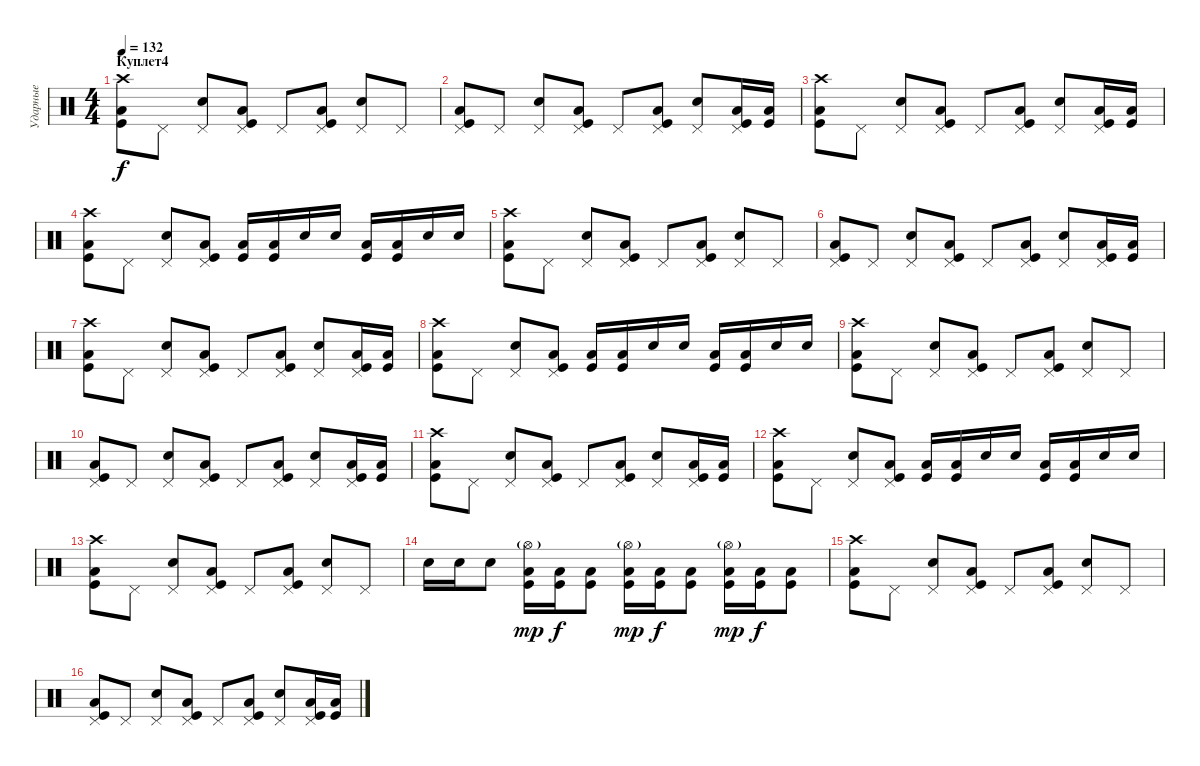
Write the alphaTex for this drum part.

\track ("Ударные" "Ударные") {instrument percussion}
\staff {score}
\articulation defaults
\ts (4 4)
\section ("" "Куплет4")
\tempo 132
\clef neutral
\ks c
("Crash high (hit)" "Low Tom (hit)" "Kick (hit)").8{dy f} "Pedal Hi-Hat (hit)".8 ("Pedal Hi-Hat (hit)" "Snare (hit) 2").8 ("Pedal Hi-Hat (hit)" "Low Tom (hit)" "Kick (hit)").8 "Pedal Hi-Hat (hit)".8 ("Pedal Hi-Hat (hit)" "Low Tom (hit)" "Kick (hit)").8 ("Pedal Hi-Hat (hit)" "Snare (hit) 2").8 "Pedal Hi-Hat (hit)".8 |
("Pedal Hi-Hat (hit)" "Low Tom (hit)" "Kick (hit)").8 "Pedal Hi-Hat (hit)".8 ("Pedal Hi-Hat (hit)" "Snare (hit) 2").8 ("Pedal Hi-Hat (hit)" "Low Tom (hit)" "Kick (hit)").8 "Pedal Hi-Hat (hit)".8 ("Pedal Hi-Hat (hit)" "Low Tom (hit)" "Kick (hit)").8 ("Pedal Hi-Hat (hit)" "Snare (hit) 2").8 ("Pedal Hi-Hat (hit)" "Low Tom (hit)" "Kick (hit)").16 ("Low Tom (hit)" "Kick (hit)").16 |
("Crash high (hit)" "Low Tom (hit)" "Kick (hit)").8 "Pedal Hi-Hat (hit)".8 ("Pedal Hi-Hat (hit)" "Snare (hit) 2").8 ("Pedal Hi-Hat (hit)" "Low Tom (hit)" "Kick (hit)").8 "Pedal Hi-Hat (hit)".8 ("Pedal Hi-Hat (hit)" "Low Tom (hit)" "Kick (hit)").8 ("Pedal Hi-Hat (hit)" "Snare (hit) 2").8 ("Pedal Hi-Hat (hit)" "Low Tom (hit)" "Kick (hit)").16 ("Low Tom (hit)" "Kick (hit)").16 |
("Crash high (hit)" "Low Tom (hit)" "Kick (hit)").8 "Pedal Hi-Hat (hit)".8 ("Pedal Hi-Hat (hit)" "Snare (hit) 2").8 ("Pedal Hi-Hat (hit)" "Low Tom (hit)" "Kick (hit)").8 ("Low Tom (hit)" "Kick (hit)").16 ("Low Tom (hit)" "Kick (hit)").16 "Electric Snare (hit)".16 "Electric Snare (hit)".16 ("Low Tom (hit)" "Kick (hit)").16 ("Low Tom (hit)" "Kick (hit)").16 "Electric Snare (hit)".16 "Electric Snare (hit)".16 |
("Crash high (hit)" "Low Tom (hit)" "Kick (hit)").8 "Pedal Hi-Hat (hit)".8 ("Pedal Hi-Hat (hit)" "Snare (hit) 2").8 ("Pedal Hi-Hat (hit)" "Low Tom (hit)" "Kick (hit)").8 "Pedal Hi-Hat (hit)".8 ("Pedal Hi-Hat (hit)" "Low Tom (hit)" "Kick (hit)").8 ("Pedal Hi-Hat (hit)" "Snare (hit) 2").8 "Pedal Hi-Hat (hit)".8 |
("Pedal Hi-Hat (hit)" "Low Tom (hit)" "Kick (hit)").8 "Pedal Hi-Hat (hit)".8 ("Pedal Hi-Hat (hit)" "Snare (hit) 2").8 ("Pedal Hi-Hat (hit)" "Low Tom (hit)" "Kick (hit)").8 "Pedal Hi-Hat (hit)".8 ("Pedal Hi-Hat (hit)" "Low Tom (hit)" "Kick (hit)").8 ("Pedal Hi-Hat (hit)" "Snare (hit) 2").8 ("Pedal Hi-Hat (hit)" "Low Tom (hit)" "Kick (hit)").16 ("Low Tom (hit)" "Kick (hit)").16 |
("Crash high (hit)" "Low Tom (hit)" "Kick (hit)").8 "Pedal Hi-Hat (hit)".8 ("Pedal Hi-Hat (hit)" "Snare (hit) 2").8 ("Pedal Hi-Hat (hit)" "Low Tom (hit)" "Kick (hit)").8 "Pedal Hi-Hat (hit)".8 ("Pedal Hi-Hat (hit)" "Low Tom (hit)" "Kick (hit)").8 ("Pedal Hi-Hat (hit)" "Snare (hit) 2").8 ("Pedal Hi-Hat (hit)" "Low Tom (hit)" "Kick (hit)").16 ("Low Tom (hit)" "Kick (hit)").16 |
("Crash high (hit)" "Low Tom (hit)" "Kick (hit)").8 "Pedal Hi-Hat (hit)".8 ("Pedal Hi-Hat (hit)" "Snare (hit) 2").8 ("Pedal Hi-Hat (hit)" "Low Tom (hit)" "Kick (hit)").8 ("Low Tom (hit)" "Kick (hit)").16 ("Low Tom (hit)" "Kick (hit)").16 "Electric Snare (hit)".16 "Electric Snare (hit)".16 ("Low Tom (hit)" "Kick (hit)").16 ("Low Tom (hit)" "Kick (hit)").16 "Electric Snare (hit)".16 "Electric Snare (hit)".16 |
("Crash high (hit)" "Low Tom (hit)" "Kick (hit)").8 "Pedal Hi-Hat (hit)".8 ("Pedal Hi-Hat (hit)" "Snare (hit) 2").8 ("Pedal Hi-Hat (hit)" "Low Tom (hit)" "Kick (hit)").8 "Pedal Hi-Hat (hit)".8 ("Pedal Hi-Hat (hit)" "Low Tom (hit)" "Kick (hit)").8 ("Pedal Hi-Hat (hit)" "Snare (hit) 2").8 "Pedal Hi-Hat (hit)".8 |
("Pedal Hi-Hat (hit)" "Low Tom (hit)" "Kick (hit)").8 "Pedal Hi-Hat (hit)".8 ("Pedal Hi-Hat (hit)" "Snare (hit) 2").8 ("Pedal Hi-Hat (hit)" "Low Tom (hit)" "Kick (hit)").8 "Pedal Hi-Hat (hit)".8 ("Pedal Hi-Hat (hit)" "Low Tom (hit)" "Kick (hit)").8 ("Pedal Hi-Hat (hit)" "Snare (hit) 2").8 ("Pedal Hi-Hat (hit)" "Low Tom (hit)" "Kick (hit)").16 ("Low Tom (hit)" "Kick (hit)").16 |
("Crash high (hit)" "Low Tom (hit)" "Kick (hit)").8 "Pedal Hi-Hat (hit)".8 ("Pedal Hi-Hat (hit)" "Snare (hit) 2").8 ("Pedal Hi-Hat (hit)" "Low Tom (hit)" "Kick (hit)").8 "Pedal Hi-Hat (hit)".8 ("Pedal Hi-Hat (hit)" "Low Tom (hit)" "Kick (hit)").8 ("Pedal Hi-Hat (hit)" "Snare (hit) 2").8 ("Pedal Hi-Hat (hit)" "Low Tom (hit)" "Kick (hit)").16 ("Low Tom (hit)" "Kick (hit)").16 |
("Crash high (hit)" "Low Tom (hit)" "Kick (hit)").8 "Pedal Hi-Hat (hit)".8 ("Pedal Hi-Hat (hit)" "Snare (hit) 2").8 ("Pedal Hi-Hat (hit)" "Low Tom (hit)" "Kick (hit)").8 ("Low Tom (hit)" "Kick (hit)").16 ("Low Tom (hit)" "Kick (hit)").16 "Electric Snare (hit)".16 "Electric Snare (hit)".16 ("Low Tom (hit)" "Kick (hit)").16 ("Low Tom (hit)" "Kick (hit)").16 "Electric Snare (hit)".16 "Electric Snare (hit)".16 |
("Crash high (hit)" "Low Tom (hit)" "Kick (hit)").8 "Pedal Hi-Hat (hit)".8 ("Pedal Hi-Hat (hit)" "Snare (hit) 2").8 ("Pedal Hi-Hat (hit)" "Low Tom (hit)" "Kick (hit)").8 "Pedal Hi-Hat (hit)".8 ("Pedal Hi-Hat (hit)" "Low Tom (hit)" "Kick (hit)").8 ("Pedal Hi-Hat (hit)" "Snare (hit) 2").8 "Pedal Hi-Hat (hit)".8 |
"Electric Snare (hit)".16 "Electric Snare (hit)".16 "Electric Snare (hit)".8 ("Hi-Hat (open)"{g} "Low Tom (hit)" "Kick (hit)").16{dy mp} ("Low Tom (hit)" "Kick (hit)").16{dy f} ("Low Tom (hit)" "Kick (hit)").8 ("Hi-Hat (open)"{g} "Low Tom (hit)" "Kick (hit)").16{dy mp} ("Low Tom (hit)" "Kick (hit)").16{dy f} ("Low Tom (hit)" "Kick (hit)").8 ("Hi-Hat (open)"{g} "Low Tom (hit)" "Kick (hit)").16{dy mp} ("Low Tom (hit)" "Kick (hit)").16{dy f} ("Low Tom (hit)" "Kick (hit)").8 |
("Crash high (hit)" "Low Tom (hit)" "Kick (hit)").8 "Pedal Hi-Hat (hit)".8 ("Pedal Hi-Hat (hit)" "Snare (hit) 2").8 ("Pedal Hi-Hat (hit)" "Low Tom (hit)" "Kick (hit)").8 "Pedal Hi-Hat (hit)".8 ("Pedal Hi-Hat (hit)" "Low Tom (hit)" "Kick (hit)").8 ("Pedal Hi-Hat (hit)" "Snare (hit) 2").8 "Pedal Hi-Hat (hit)".8 |
("Pedal Hi-Hat (hit)" "Low Tom (hit)" "Kick (hit)").8 "Pedal Hi-Hat (hit)".8 ("Pedal Hi-Hat (hit)" "Snare (hit) 2").8 ("Pedal Hi-Hat (hit)" "Low Tom (hit)" "Kick (hit)").8 "Pedal Hi-Hat (hit)".8 ("Pedal Hi-Hat (hit)" "Low Tom (hit)" "Kick (hit)").8 ("Pedal Hi-Hat (hit)" "Snare (hit) 2").8 ("Pedal Hi-Hat (hit)" "Low Tom (hit)" "Kick (hit)").16 ("Low Tom (hit)" "Kick (hit)").16
